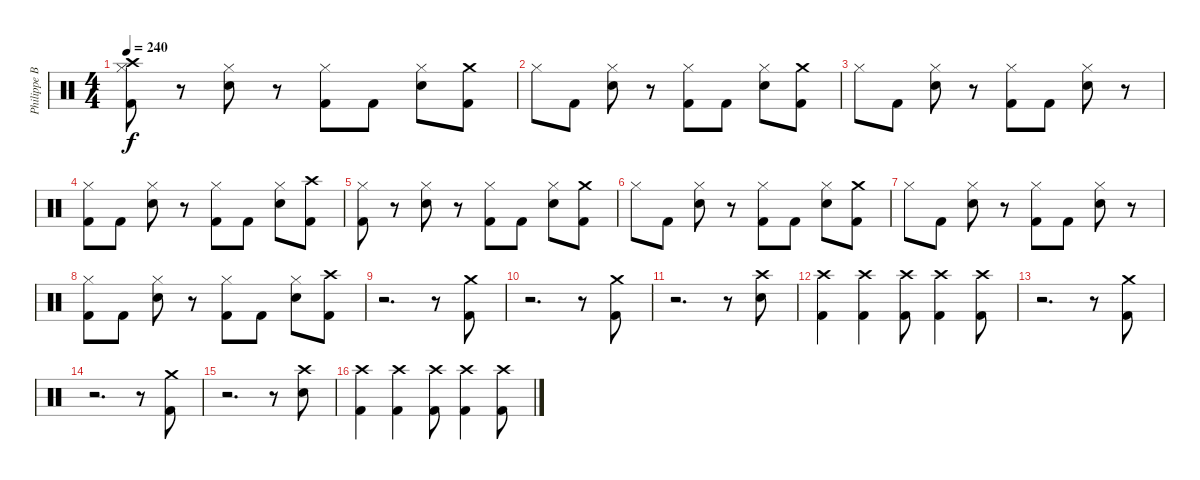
\track ("Philippe Borda" "Philippe B") {instrument percussion}
\staff {score}
\articulation defaults
\ts (4 4)
\tempo 240
\clef neutral
\ks c
("Crash high (hit)" "Hi-Hat (closed)" "Kick (hit) 2").8{dy f} r.8 ("Hi-Hat (closed)" "Snare (hit) 2").8 r.8 ("Hi-Hat (closed)" "Kick (hit) 2").8 "Kick (hit) 2".8 ("Hi-Hat (closed)" "Snare (hit) 2").8 ("Crash medium (hit)" "Kick (hit) 2").8 |
"Hi-Hat (closed)".8 "Kick (hit) 2".8 ("Hi-Hat (closed)" "Snare (hit) 2").8 r.8 ("Hi-Hat (closed)" "Kick (hit) 2").8 "Kick (hit) 2".8 ("Hi-Hat (closed)" "Snare (hit) 2").8 ("Crash medium (hit)" "Kick (hit) 2").8 |
"Hi-Hat (closed)".8 "Kick (hit) 2".8 ("Hi-Hat (closed)" "Snare (hit) 2").8 r.8 ("Hi-Hat (closed)" "Kick (hit) 2").8 "Kick (hit) 2".8 ("Hi-Hat (closed)" "Snare (hit) 2").8 r.8 |
("Hi-Hat (closed)" "Kick (hit) 2").8 "Kick (hit) 2".8 ("Hi-Hat (closed)" "Snare (hit) 2").8 r.8 ("Hi-Hat (closed)" "Kick (hit) 2").8 "Kick (hit) 2".8 ("Hi-Hat (closed)" "Snare (hit) 2").8 ("Crash high (hit)" "Kick (hit) 2").8 |
("Hi-Hat (closed)" "Kick (hit) 2").8 r.8 ("Hi-Hat (closed)" "Snare (hit) 2").8 r.8 ("Hi-Hat (closed)" "Kick (hit) 2").8 "Kick (hit) 2".8 ("Hi-Hat (closed)" "Snare (hit) 2").8 ("Crash medium (hit)" "Kick (hit) 2").8 |
"Hi-Hat (closed)".8 "Kick (hit) 2".8 ("Hi-Hat (closed)" "Snare (hit) 2").8 r.8 ("Hi-Hat (closed)" "Kick (hit) 2").8 "Kick (hit) 2".8 ("Hi-Hat (closed)" "Snare (hit) 2").8 ("Crash medium (hit)" "Kick (hit) 2").8 |
"Hi-Hat (closed)".8 "Kick (hit) 2".8 ("Hi-Hat (closed)" "Snare (hit) 2").8 r.8 ("Hi-Hat (closed)" "Kick (hit) 2").8 "Kick (hit) 2".8 ("Hi-Hat (closed)" "Snare (hit) 2").8 r.8 |
("Hi-Hat (closed)" "Kick (hit) 2").8 "Kick (hit) 2".8 ("Hi-Hat (closed)" "Snare (hit) 2").8 r.8 ("Hi-Hat (closed)" "Kick (hit) 2").8 "Kick (hit) 2".8 ("Hi-Hat (closed)" "Snare (hit) 2").8 ("Crash high (hit)" "Kick (hit) 2").8 |
r.2{d} r.8 ("Crash medium (hit)" "Kick (hit) 2").8 |
r.2{d} r.8 ("Crash medium (hit)" "Kick (hit) 2").8 |
r.2{d} r.8 ("Crash high (hit)" "Snare (hit) 2").8 |
("Crash high (hit)" "Kick (hit) 2").4 ("Crash high (hit)" "Kick (hit) 2").4 ("Crash high (hit)" "Kick (hit) 2").8 ("Crash high (hit)" "Kick (hit) 2").4 ("Crash high (hit)" "Kick (hit) 2").8 |
r.2{d} r.8 ("Crash medium (hit)" "Kick (hit) 2").8 |
r.2{d} r.8 ("Crash medium (hit)" "Kick (hit) 2").8 |
r.2{d} r.8 ("Crash high (hit)" "Snare (hit) 2").8 |
("Crash high (hit)" "Kick (hit) 2").4 ("Crash high (hit)" "Kick (hit) 2").4 ("Crash high (hit)" "Kick (hit) 2").8 ("Crash high (hit)" "Kick (hit) 2").4 ("Crash high (hit)" "Kick (hit) 2").8
